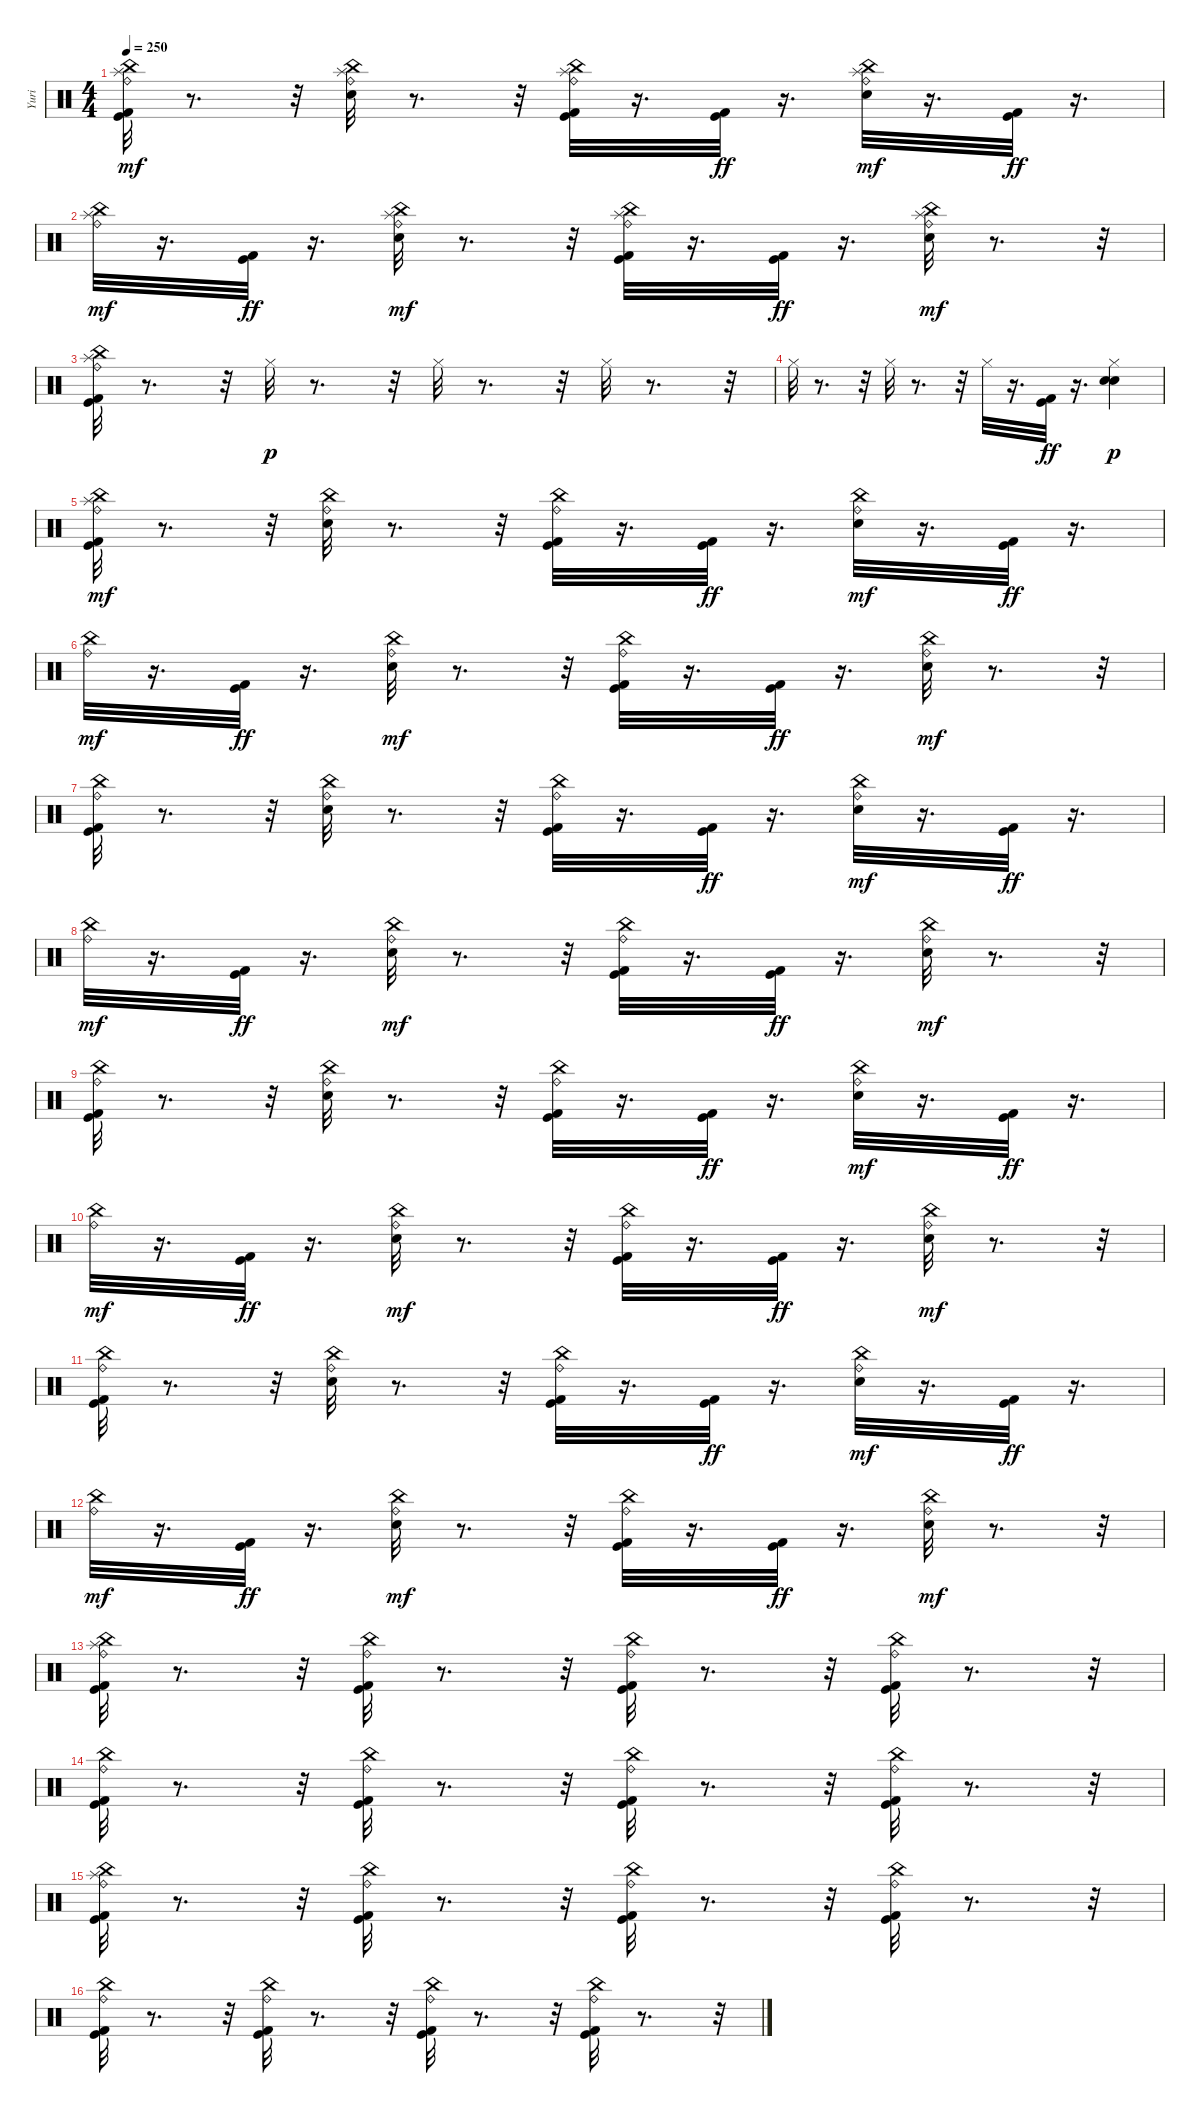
\track ("Yuri" "Yuri") {instrument percussion}
\staff {score}
\articulation defaults
\ts (4 4)
\tempo 250
\clef neutral
\ks c
("Kick (hit) 2" "Kick (hit)" "Ride (bell)" "China (hit)" "Splash (hit)").32{dy mf} r.8{d} r.32 ("Snare (hit) 2" "Ride (bell)" "China (hit)" "Splash (hit)").32 r.8{d} r.32 ("Kick (hit) 2" "Kick (hit)" "Ride (bell)" "China (hit)" "Splash (hit)").32 r.16{d} ("Kick (hit) 2" "Kick (hit)").32{dy ff} r.16{d} ("Snare (hit) 2" "Ride (bell)" "China (hit)" "Splash (hit)").32{dy mf} r.16{d} ("Kick (hit) 2" "Kick (hit)").32{dy ff} r.16{d} |
("Ride (bell)" "China (hit)" "Splash (hit)").32{dy mf} r.16{d} ("Kick (hit) 2" "Kick (hit)").32{dy ff} r.16{d} ("Snare (hit) 2" "Ride (bell)" "China (hit)" "Splash (hit)").32{dy mf} r.8{d} r.32 ("Kick (hit) 2" "Kick (hit)" "Ride (bell)" "China (hit)" "Splash (hit)").32 r.16{d} ("Kick (hit) 2" "Kick (hit)").32{dy ff} r.16{d} ("Snare (hit) 2" "Ride (bell)" "China (hit)" "Splash (hit)").32{dy mf} r.8{d} r.32 |
("Kick (hit) 2" "Kick (hit)" "Ride (bell)" "China (hit)" "Splash (hit)").32 r.8{d} r.32 "Hi-Hat (closed)".32{dy p} r.8{d} r.32 "Hi-Hat (closed)".32 r.8{d} r.32 "Hi-Hat (closed)".32 r.8{d} r.32 |
"Hi-Hat (closed)".32 r.8{d} r.32 "Hi-Hat (closed)".32 r.8{d} r.32 "Hi-Hat (closed)".32 r.16{d} ("Kick (hit) 2" "Kick (hit)").32{dy ff} r.16{d} ("Hi-Hat (closed)" "Snare (hit) 2" "Snare (hit) 2").4{dy p} |
("Kick (hit) 2" "Kick (hit)" "Ride (bell)" "China (hit)" "Splash (hit)").32{dy mf} r.8{d} r.32 ("Snare (hit) 2" "Ride (bell)" "China (hit)").32 r.8{d} r.32 ("Kick (hit) 2" "Kick (hit)" "Ride (bell)" "China (hit)").32 r.16{d} ("Kick (hit) 2" "Kick (hit)").32{dy ff} r.16{d} ("Snare (hit) 2" "Ride (bell)" "China (hit)").32{dy mf} r.16{d} ("Kick (hit) 2" "Kick (hit)").32{dy ff} r.16{d} |
("Ride (bell)" "China (hit)").32{dy mf} r.16{d} ("Kick (hit) 2" "Kick (hit)").32{dy ff} r.16{d} ("Snare (hit) 2" "Ride (bell)" "China (hit)").32{dy mf} r.8{d} r.32 ("Kick (hit) 2" "Kick (hit)" "Ride (bell)" "China (hit)").32 r.16{d} ("Kick (hit) 2" "Kick (hit)").32{dy ff} r.16{d} ("Snare (hit) 2" "Ride (bell)" "China (hit)").32{dy mf} r.8{d} r.32 |
("Kick (hit) 2" "Kick (hit)" "Ride (bell)" "China (hit)").32 r.8{d} r.32 ("Snare (hit) 2" "Ride (bell)" "China (hit)").32 r.8{d} r.32 ("Kick (hit) 2" "Kick (hit)" "Ride (bell)" "China (hit)").32 r.16{d} ("Kick (hit) 2" "Kick (hit)").32{dy ff} r.16{d} ("Snare (hit) 2" "Ride (bell)" "China (hit)").32{dy mf} r.16{d} ("Kick (hit) 2" "Kick (hit)").32{dy ff} r.16{d} |
("Ride (bell)" "China (hit)").32{dy mf} r.16{d} ("Kick (hit) 2" "Kick (hit)").32{dy ff} r.16{d} ("Snare (hit) 2" "Ride (bell)" "China (hit)").32{dy mf} r.8{d} r.32 ("Kick (hit) 2" "Kick (hit)" "Ride (bell)" "China (hit)").32 r.16{d} ("Kick (hit) 2" "Kick (hit)").32{dy ff} r.16{d} ("Snare (hit) 2" "Ride (bell)" "China (hit)").32{dy mf} r.8{d} r.32 |
("Kick (hit) 2" "Kick (hit)" "Ride (bell)" "China (hit)").32 r.8{d} r.32 ("Snare (hit) 2" "Ride (bell)" "China (hit)").32 r.8{d} r.32 ("Kick (hit) 2" "Kick (hit)" "Ride (bell)" "China (hit)").32 r.16{d} ("Kick (hit) 2" "Kick (hit)").32{dy ff} r.16{d} ("Snare (hit) 2" "Ride (bell)" "China (hit)").32{dy mf} r.16{d} ("Kick (hit) 2" "Kick (hit)").32{dy ff} r.16{d} |
("Ride (bell)" "China (hit)").32{dy mf} r.16{d} ("Kick (hit) 2" "Kick (hit)").32{dy ff} r.16{d} ("Snare (hit) 2" "Ride (bell)" "China (hit)").32{dy mf} r.8{d} r.32 ("Kick (hit) 2" "Kick (hit)" "Ride (bell)" "China (hit)").32 r.16{d} ("Kick (hit) 2" "Kick (hit)").32{dy ff} r.16{d} ("Snare (hit) 2" "Ride (bell)" "China (hit)").32{dy mf} r.8{d} r.32 |
("Kick (hit) 2" "Kick (hit)" "Ride (bell)" "China (hit)").32 r.8{d} r.32 ("Snare (hit) 2" "Ride (bell)" "China (hit)").32 r.8{d} r.32 ("Kick (hit) 2" "Kick (hit)" "Ride (bell)" "China (hit)").32 r.16{d} ("Kick (hit) 2" "Kick (hit)").32{dy ff} r.16{d} ("Snare (hit) 2" "Ride (bell)" "China (hit)").32{dy mf} r.16{d} ("Kick (hit) 2" "Kick (hit)").32{dy ff} r.16{d} |
("Ride (bell)" "China (hit)").32{dy mf} r.16{d} ("Kick (hit) 2" "Kick (hit)").32{dy ff} r.16{d} ("Snare (hit) 2" "Ride (bell)" "China (hit)").32{dy mf} r.8{d} r.32 ("Kick (hit) 2" "Kick (hit)" "Ride (bell)" "China (hit)").32 r.16{d} ("Kick (hit) 2" "Kick (hit)").32{dy ff} r.16{d} ("Snare (hit) 2" "Ride (bell)" "China (hit)").32{dy mf} r.8{d} r.32 |
("Kick (hit) 2" "Kick (hit)" "Ride (bell)" "China (hit)" "Splash (hit)").32 r.8{d} r.32 ("Kick (hit) 2" "Kick (hit)" "Ride (bell)" "China (hit)").32 r.8{d} r.32 ("Kick (hit) 2" "Kick (hit)" "Ride (bell)" "China (hit)").32 r.8{d} r.32 ("Kick (hit) 2" "Kick (hit)" "Ride (bell)" "China (hit)").32 r.8{d} r.32 |
("Kick (hit) 2" "Kick (hit)" "Ride (bell)" "China (hit)").32 r.8{d} r.32 ("Kick (hit) 2" "Kick (hit)" "Ride (bell)" "China (hit)").32 r.8{d} r.32 ("Kick (hit) 2" "Kick (hit)" "Ride (bell)" "China (hit)").32 r.8{d} r.32 ("Kick (hit) 2" "Kick (hit)" "Ride (bell)" "China (hit)").32 r.8{d} r.32 |
("Kick (hit) 2" "Kick (hit)" "Ride (bell)" "China (hit)" "Splash (hit)").32 r.8{d} r.32 ("Kick (hit) 2" "Kick (hit)" "Ride (bell)" "China (hit)").32 r.8{d} r.32 ("Kick (hit) 2" "Kick (hit)" "Ride (bell)" "China (hit)").32 r.8{d} r.32 ("Kick (hit) 2" "Kick (hit)" "Ride (bell)" "China (hit)").32 r.8{d} r.32 |
("Kick (hit) 2" "Kick (hit)" "Ride (bell)" "China (hit)").32 r.8{d} r.32 ("Kick (hit) 2" "Kick (hit)" "Ride (bell)" "China (hit)").32 r.8{d} r.32 ("Kick (hit) 2" "Kick (hit)" "Ride (bell)" "China (hit)").32 r.8{d} r.32 ("Kick (hit) 2" "Kick (hit)" "Ride (bell)" "China (hit)").32 r.8{d} r.32
